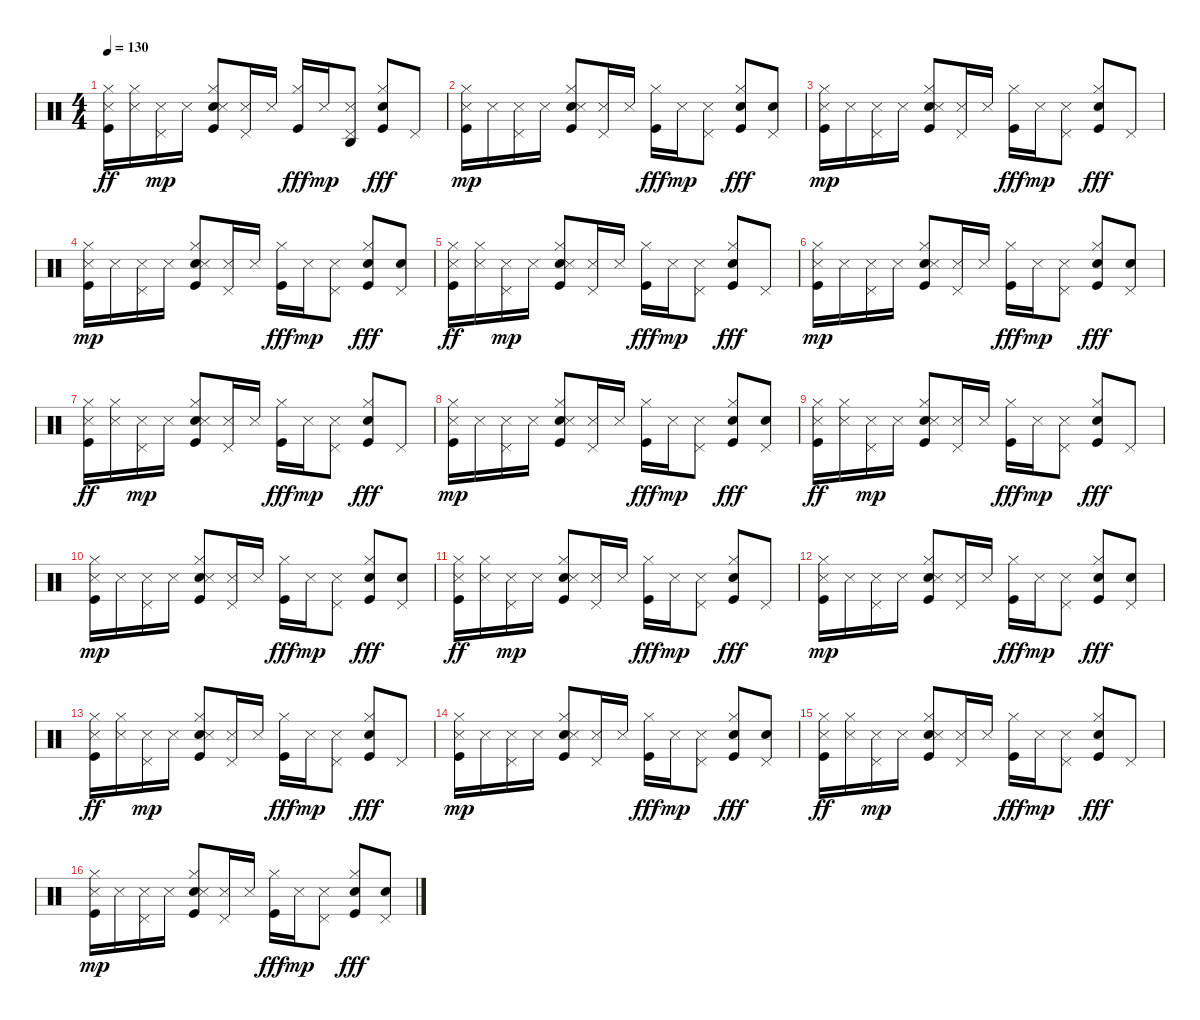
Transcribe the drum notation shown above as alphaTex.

\track "" {instrument percussion}
\staff {score}
\articulation defaults
\ts (4 4)
\tempo 130
\clef neutral
\ks c
("Kick (hit)" "Snare (side stick) 3" "Hi-Hat (closed)").16{dy ff} ("Snare (side stick) 3" "Hi-Hat (closed)").16 ("Pedal Hi-Hat (hit)" "Snare (side stick) 3").16{dy mp} "Snare (side stick) 3".16 ("Hand Clap (hit)" "Kick (hit)" "Snare (side stick) 3" "Hi-Hat (closed)").8 ("Pedal Hi-Hat (hit)" "Snare (side stick) 3").16 "Snare (side stick) 3".16 ("Kick (hit)" "Hi-Hat (closed)").16{dy fff} "Snare (side stick) 3".16{dy mp} ("Pedal Hi-Hat (hit)" "Agogo high (hit)" "Snare (side stick) 3").8 ("Hand Clap (hit)" "Kick (hit)" "Hi-Hat (closed)").8{dy fff} "Pedal Hi-Hat (hit)".8 |
("Kick (hit)" "Snare (side stick) 3" "Hi-Hat (closed)").16{dy mp} "Snare (side stick) 3".16 ("Pedal Hi-Hat (hit)" "Snare (side stick) 3").16 "Snare (side stick) 3".16 ("Hand Clap (hit)" "Kick (hit)" "Snare (side stick) 3" "Hi-Hat (closed)").8 ("Pedal Hi-Hat (hit)" "Snare (side stick) 3").16 "Snare (side stick) 3".16 ("Kick (hit)" "Hi-Hat (closed)").16{dy fff} "Snare (side stick) 3".16{dy mp} ("Pedal Hi-Hat (hit)" "Snare (side stick) 3").8 ("Hand Clap (hit)" "Kick (hit)" "Hi-Hat (closed)").8{dy fff} ("Hand Clap (hit)" "Pedal Hi-Hat (hit)").8 |
("Kick (hit)" "Snare (side stick) 3" "Hi-Hat (closed)").16{dy mp} "Snare (side stick) 3".16 ("Pedal Hi-Hat (hit)" "Snare (side stick) 3").16 "Snare (side stick) 3".16 ("Hand Clap (hit)" "Kick (hit)" "Snare (side stick) 3" "Hi-Hat (closed)").8 ("Pedal Hi-Hat (hit)" "Snare (side stick) 3").16 "Snare (side stick) 3".16 ("Kick (hit)" "Hi-Hat (closed)").16{dy fff} "Snare (side stick) 3".16{dy mp} ("Pedal Hi-Hat (hit)" "Snare (side stick) 3").8 ("Hand Clap (hit)" "Kick (hit)" "Hi-Hat (closed)").8{dy fff} "Pedal Hi-Hat (hit)".8 |
("Kick (hit)" "Snare (side stick) 3" "Hi-Hat (closed)").16{dy mp} "Snare (side stick) 3".16 ("Pedal Hi-Hat (hit)" "Snare (side stick) 3").16 "Snare (side stick) 3".16 ("Hand Clap (hit)" "Kick (hit)" "Snare (side stick) 3" "Hi-Hat (closed)").8 ("Pedal Hi-Hat (hit)" "Snare (side stick) 3").16 "Snare (side stick) 3".16 ("Kick (hit)" "Hi-Hat (closed)").16{dy fff} "Snare (side stick) 3".16{dy mp} ("Pedal Hi-Hat (hit)" "Snare (side stick) 3").8 ("Hand Clap (hit)" "Kick (hit)" "Hi-Hat (closed)").8{dy fff} ("Hand Clap (hit)" "Pedal Hi-Hat (hit)").8 |
("Kick (hit)" "Snare (side stick) 3" "Hi-Hat (closed)").16{dy ff} ("Snare (side stick) 3" "Hi-Hat (closed)").16 ("Pedal Hi-Hat (hit)" "Snare (side stick) 3").16{dy mp} "Snare (side stick) 3".16 ("Hand Clap (hit)" "Kick (hit)" "Snare (side stick) 3" "Hi-Hat (closed)").8 ("Pedal Hi-Hat (hit)" "Snare (side stick) 3").16 "Snare (side stick) 3".16 ("Kick (hit)" "Hi-Hat (closed)").16{dy fff} "Snare (side stick) 3".16{dy mp} ("Pedal Hi-Hat (hit)" "Snare (side stick) 3").8 ("Hand Clap (hit)" "Kick (hit)" "Hi-Hat (closed)").8{dy fff} "Pedal Hi-Hat (hit)".8 |
("Kick (hit)" "Snare (side stick) 3" "Hi-Hat (closed)").16{dy mp} "Snare (side stick) 3".16 ("Pedal Hi-Hat (hit)" "Snare (side stick) 3").16 "Snare (side stick) 3".16 ("Hand Clap (hit)" "Kick (hit)" "Snare (side stick) 3" "Hi-Hat (closed)").8 ("Pedal Hi-Hat (hit)" "Snare (side stick) 3").16 "Snare (side stick) 3".16 ("Kick (hit)" "Hi-Hat (closed)").16{dy fff} "Snare (side stick) 3".16{dy mp} ("Pedal Hi-Hat (hit)" "Snare (side stick) 3").8 ("Hand Clap (hit)" "Kick (hit)" "Hi-Hat (closed)").8{dy fff} ("Hand Clap (hit)" "Pedal Hi-Hat (hit)").8 |
("Kick (hit)" "Snare (side stick) 3" "Hi-Hat (closed)").16{dy ff} ("Snare (side stick) 3" "Hi-Hat (closed)").16 ("Pedal Hi-Hat (hit)" "Snare (side stick) 3").16{dy mp} "Snare (side stick) 3".16 ("Hand Clap (hit)" "Kick (hit)" "Snare (side stick) 3" "Hi-Hat (closed)").8 ("Pedal Hi-Hat (hit)" "Snare (side stick) 3").16 "Snare (side stick) 3".16 ("Kick (hit)" "Hi-Hat (closed)").16{dy fff} "Snare (side stick) 3".16{dy mp} ("Pedal Hi-Hat (hit)" "Snare (side stick) 3").8 ("Hand Clap (hit)" "Kick (hit)" "Hi-Hat (closed)").8{dy fff} "Pedal Hi-Hat (hit)".8 |
("Kick (hit)" "Snare (side stick) 3" "Hi-Hat (closed)").16{dy mp} "Snare (side stick) 3".16 ("Pedal Hi-Hat (hit)" "Snare (side stick) 3").16 "Snare (side stick) 3".16 ("Hand Clap (hit)" "Kick (hit)" "Snare (side stick) 3" "Hi-Hat (closed)").8 ("Pedal Hi-Hat (hit)" "Snare (side stick) 3").16 "Snare (side stick) 3".16 ("Kick (hit)" "Hi-Hat (closed)").16{dy fff} "Snare (side stick) 3".16{dy mp} ("Pedal Hi-Hat (hit)" "Snare (side stick) 3").8 ("Hand Clap (hit)" "Kick (hit)" "Hi-Hat (closed)").8{dy fff} ("Hand Clap (hit)" "Pedal Hi-Hat (hit)").8 |
("Kick (hit)" "Snare (side stick) 3" "Hi-Hat (closed)").16{dy ff} ("Snare (side stick) 3" "Hi-Hat (closed)").16 ("Pedal Hi-Hat (hit)" "Snare (side stick) 3").16{dy mp} "Snare (side stick) 3".16 ("Hand Clap (hit)" "Kick (hit)" "Snare (side stick) 3" "Hi-Hat (closed)").8 ("Pedal Hi-Hat (hit)" "Snare (side stick) 3").16 "Snare (side stick) 3".16 ("Kick (hit)" "Hi-Hat (closed)").16{dy fff} "Snare (side stick) 3".16{dy mp} ("Pedal Hi-Hat (hit)" "Snare (side stick) 3").8 ("Hand Clap (hit)" "Kick (hit)" "Hi-Hat (closed)").8{dy fff} "Pedal Hi-Hat (hit)".8 |
("Kick (hit)" "Snare (side stick) 3" "Hi-Hat (closed)").16{dy mp} "Snare (side stick) 3".16 ("Pedal Hi-Hat (hit)" "Snare (side stick) 3").16 "Snare (side stick) 3".16 ("Hand Clap (hit)" "Kick (hit)" "Snare (side stick) 3" "Hi-Hat (closed)").8 ("Pedal Hi-Hat (hit)" "Snare (side stick) 3").16 "Snare (side stick) 3".16 ("Kick (hit)" "Hi-Hat (closed)").16{dy fff} "Snare (side stick) 3".16{dy mp} ("Pedal Hi-Hat (hit)" "Snare (side stick) 3").8 ("Hand Clap (hit)" "Kick (hit)" "Hi-Hat (closed)").8{dy fff} ("Hand Clap (hit)" "Pedal Hi-Hat (hit)").8 |
("Kick (hit)" "Snare (side stick) 3" "Hi-Hat (closed)").16{dy ff} ("Snare (side stick) 3" "Hi-Hat (closed)").16 ("Pedal Hi-Hat (hit)" "Snare (side stick) 3").16{dy mp} "Snare (side stick) 3".16 ("Hand Clap (hit)" "Kick (hit)" "Snare (side stick) 3" "Hi-Hat (closed)").8 ("Pedal Hi-Hat (hit)" "Snare (side stick) 3").16 "Snare (side stick) 3".16 ("Kick (hit)" "Hi-Hat (closed)").16{dy fff} "Snare (side stick) 3".16{dy mp} ("Pedal Hi-Hat (hit)" "Snare (side stick) 3").8 ("Hand Clap (hit)" "Kick (hit)" "Hi-Hat (closed)").8{dy fff} "Pedal Hi-Hat (hit)".8 |
("Kick (hit)" "Snare (side stick) 3" "Hi-Hat (closed)").16{dy mp} "Snare (side stick) 3".16 ("Pedal Hi-Hat (hit)" "Snare (side stick) 3").16 "Snare (side stick) 3".16 ("Hand Clap (hit)" "Kick (hit)" "Snare (side stick) 3" "Hi-Hat (closed)").8 ("Pedal Hi-Hat (hit)" "Snare (side stick) 3").16 "Snare (side stick) 3".16 ("Kick (hit)" "Hi-Hat (closed)").16{dy fff} "Snare (side stick) 3".16{dy mp} ("Pedal Hi-Hat (hit)" "Snare (side stick) 3").8 ("Hand Clap (hit)" "Kick (hit)" "Hi-Hat (closed)").8{dy fff} ("Hand Clap (hit)" "Pedal Hi-Hat (hit)").8 |
("Kick (hit)" "Snare (side stick) 3" "Hi-Hat (closed)").16{dy ff} ("Snare (side stick) 3" "Hi-Hat (closed)").16 ("Pedal Hi-Hat (hit)" "Snare (side stick) 3").16{dy mp} "Snare (side stick) 3".16 ("Hand Clap (hit)" "Kick (hit)" "Snare (side stick) 3" "Hi-Hat (closed)").8 ("Pedal Hi-Hat (hit)" "Snare (side stick) 3").16 "Snare (side stick) 3".16 ("Kick (hit)" "Hi-Hat (closed)").16{dy fff} "Snare (side stick) 3".16{dy mp} ("Pedal Hi-Hat (hit)" "Snare (side stick) 3").8 ("Hand Clap (hit)" "Kick (hit)" "Hi-Hat (closed)").8{dy fff} "Pedal Hi-Hat (hit)".8 |
("Kick (hit)" "Snare (side stick) 3" "Hi-Hat (closed)").16{dy mp} "Snare (side stick) 3".16 ("Pedal Hi-Hat (hit)" "Snare (side stick) 3").16 "Snare (side stick) 3".16 ("Hand Clap (hit)" "Kick (hit)" "Snare (side stick) 3" "Hi-Hat (closed)").8 ("Pedal Hi-Hat (hit)" "Snare (side stick) 3").16 "Snare (side stick) 3".16 ("Kick (hit)" "Hi-Hat (closed)").16{dy fff} "Snare (side stick) 3".16{dy mp} ("Pedal Hi-Hat (hit)" "Snare (side stick) 3").8 ("Hand Clap (hit)" "Kick (hit)" "Hi-Hat (closed)").8{dy fff} ("Hand Clap (hit)" "Pedal Hi-Hat (hit)").8 |
("Kick (hit)" "Snare (side stick) 3" "Hi-Hat (closed)").16{dy ff} ("Snare (side stick) 3" "Hi-Hat (closed)").16 ("Pedal Hi-Hat (hit)" "Snare (side stick) 3").16{dy mp} "Snare (side stick) 3".16 ("Hand Clap (hit)" "Kick (hit)" "Snare (side stick) 3" "Hi-Hat (closed)").8 ("Pedal Hi-Hat (hit)" "Snare (side stick) 3").16 "Snare (side stick) 3".16 ("Kick (hit)" "Hi-Hat (closed)").16{dy fff} "Snare (side stick) 3".16{dy mp} ("Pedal Hi-Hat (hit)" "Snare (side stick) 3").8 ("Hand Clap (hit)" "Kick (hit)" "Hi-Hat (closed)").8{dy fff} "Pedal Hi-Hat (hit)".8 |
("Kick (hit)" "Snare (side stick) 3" "Hi-Hat (closed)").16{dy mp} "Snare (side stick) 3".16 ("Pedal Hi-Hat (hit)" "Snare (side stick) 3").16 "Snare (side stick) 3".16 ("Hand Clap (hit)" "Kick (hit)" "Snare (side stick) 3" "Hi-Hat (closed)").8 ("Pedal Hi-Hat (hit)" "Snare (side stick) 3").16 "Snare (side stick) 3".16 ("Kick (hit)" "Hi-Hat (closed)").16{dy fff} "Snare (side stick) 3".16{dy mp} ("Pedal Hi-Hat (hit)" "Snare (side stick) 3").8 ("Hand Clap (hit)" "Kick (hit)" "Hi-Hat (closed)").8{dy fff} ("Hand Clap (hit)" "Pedal Hi-Hat (hit)").8
